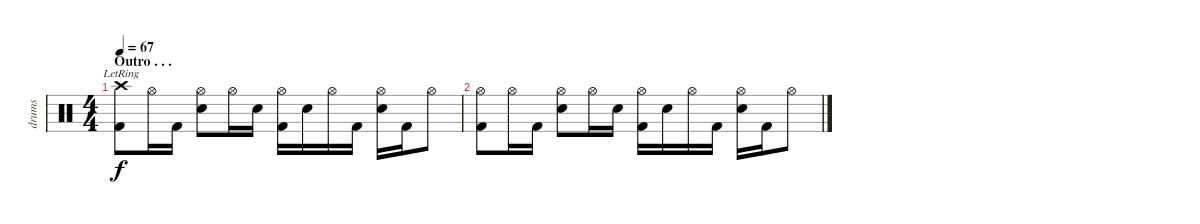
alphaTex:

\track ("drums" "drums") {instrument percussion}
\staff {score}
\articulation defaults
\ts (4 4)
\section ("" "Outro . . .")
\tempo 67
\clef neutral
\ks c
("Crash high (hit)"{lr} "Kick (hit) 2").8{dy f} "Hi-Hat (open)".16 "Kick (hit) 2".16 ("Hi-Hat (open)" "Snare (hit) 2").8 "Hi-Hat (open)".16 "Snare (hit) 2".16 ("Hi-Hat (open)" "Kick (hit) 2").16 "Snare (hit) 2".16 "Hi-Hat (open)".16 "Kick (hit) 2".16 ("Hi-Hat (open)" "Snare (hit) 2").16 "Kick (hit) 2".16 "Hi-Hat (open)".8 |
("Hi-Hat (open)" "Kick (hit) 2").8 "Hi-Hat (open)".16 "Kick (hit) 2".16 ("Hi-Hat (open)" "Snare (hit) 2").8 "Hi-Hat (open)".16 "Snare (hit) 2".16 ("Hi-Hat (open)" "Kick (hit) 2").16 "Snare (hit) 2".16 "Hi-Hat (open)".16 "Kick (hit) 2".16 ("Hi-Hat (open)" "Snare (hit) 2").16 "Kick (hit) 2".16 "Hi-Hat (open)".8
